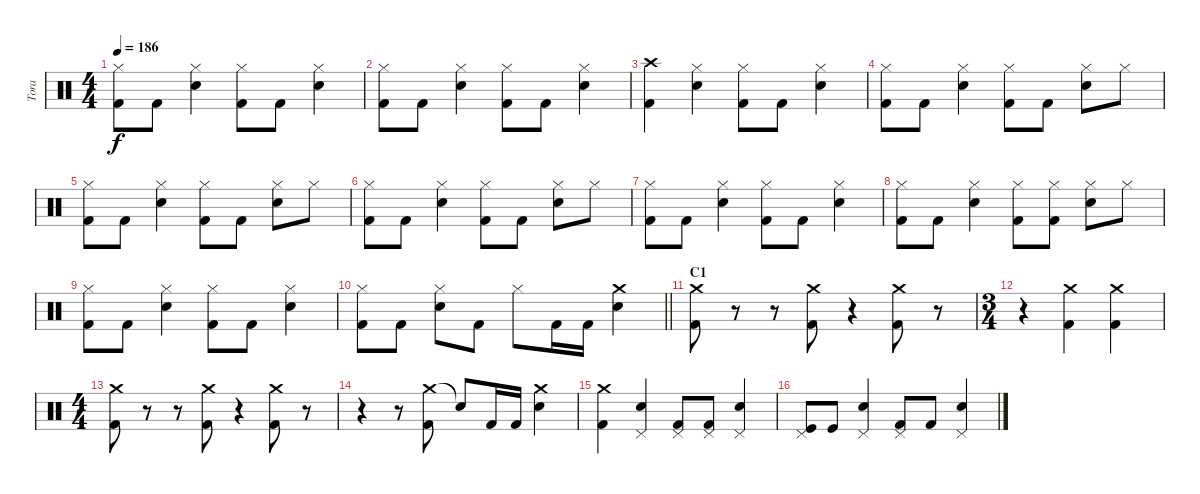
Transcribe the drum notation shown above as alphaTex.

\track ("Tora" "Tora") {instrument percussion}
\staff {score}
\articulation defaults
\ts (4 4)
\tempo 186
\clef neutral
\ks c
("Hi-Hat (closed)" "Kick (hit) 2").8{dy f} "Kick (hit) 2".8 ("Hi-Hat (closed)" "Electric Snare (hit)").4 ("Hi-Hat (closed)" "Kick (hit) 2").8 "Kick (hit) 2".8 ("Hi-Hat (closed)" "Electric Snare (hit)").4 |
("Hi-Hat (closed)" "Kick (hit) 2").8 "Kick (hit) 2".8 ("Hi-Hat (closed)" "Electric Snare (hit)").4 ("Hi-Hat (closed)" "Kick (hit) 2").8 "Kick (hit) 2".8 ("Hi-Hat (closed)" "Electric Snare (hit)").4 |
("Crash high (hit)" "Kick (hit) 2").4 ("Hi-Hat (closed)" "Electric Snare (hit)").4 ("Hi-Hat (closed)" "Kick (hit) 2").8 "Kick (hit) 2".8 ("Hi-Hat (closed)" "Electric Snare (hit)").4 |
("Hi-Hat (closed)" "Kick (hit) 2").8 "Kick (hit) 2".8 ("Hi-Hat (closed)" "Electric Snare (hit)").4 ("Hi-Hat (closed)" "Kick (hit) 2").8 "Kick (hit) 2".8 ("Hi-Hat (closed)" "Electric Snare (hit)").8 "Hi-Hat (closed)".8 |
("Hi-Hat (closed)" "Kick (hit) 2").8 "Kick (hit) 2".8 ("Hi-Hat (closed)" "Electric Snare (hit)").4 ("Hi-Hat (closed)" "Kick (hit) 2").8 "Kick (hit) 2".8 ("Hi-Hat (closed)" "Electric Snare (hit)").8 "Hi-Hat (closed)".8 |
("Hi-Hat (closed)" "Kick (hit) 2").8 "Kick (hit) 2".8 ("Hi-Hat (closed)" "Electric Snare (hit)").4 ("Hi-Hat (closed)" "Kick (hit) 2").8 "Kick (hit) 2".8 ("Hi-Hat (closed)" "Electric Snare (hit)").8 "Hi-Hat (closed)".8 |
("Hi-Hat (closed)" "Kick (hit) 2").8 "Kick (hit) 2".8 ("Hi-Hat (closed)" "Electric Snare (hit)").4 ("Hi-Hat (closed)" "Kick (hit) 2").8 "Kick (hit) 2".8 ("Hi-Hat (closed)" "Electric Snare (hit)").4 |
("Hi-Hat (closed)" "Kick (hit) 2").8 "Kick (hit) 2".8 ("Hi-Hat (closed)" "Electric Snare (hit)").4 ("Hi-Hat (closed)" "Kick (hit) 2").8 ("Hi-Hat (closed)" "Kick (hit) 2").8 ("Hi-Hat (closed)" "Electric Snare (hit)").8 "Hi-Hat (closed)".8 |
("Hi-Hat (closed)" "Kick (hit) 2").8 "Kick (hit) 2".8 ("Hi-Hat (closed)" "Electric Snare (hit)").4 ("Hi-Hat (closed)" "Kick (hit) 2").8 "Kick (hit) 2".8 ("Hi-Hat (closed)" "Electric Snare (hit)").4 |
\barLineRight lightlight
("Hi-Hat (closed)" "Kick (hit) 2").8 "Kick (hit) 2".8 ("Hi-Hat (closed)" "Electric Snare (hit)").8 "Kick (hit) 2".8 "Hi-Hat (closed)".8 "Kick (hit) 2".16 "Kick (hit) 2".16 ("Crash medium (hit)" "Electric Snare (hit)").4 |
\section ("" "C1")
("Crash medium (hit)" "Kick (hit) 2").8 r.8 r.8 ("Crash medium (hit)" "Kick (hit) 2").8 r.4 ("Crash medium (hit)" "Kick (hit) 2").8 r.8 |
\ts (3 4)
r.4 ("Crash medium (hit)" "Kick (hit) 2").4 ("Crash medium (hit)" "Kick (hit) 2").4 |
\ts (4 4)
("Crash medium (hit)" "Kick (hit) 2").8 r.8 r.8 ("Crash medium (hit)" "Kick (hit) 2").8 r.4 ("Crash medium (hit)" "Kick (hit) 2").8 r.8 |
r.4 r.8 ("Crash medium (hit)" "Kick (hit) 2").8 "Snare (hit)"{t}.8 "Kick (hit) 2".16 "Kick (hit) 2".16 ("Crash medium (hit)" "Electric Snare (hit)").4 |
("Crash medium (hit)" "Kick (hit) 2").4 ("Pedal Hi-Hat (hit)" "Electric Snare (hit)").4 ("Pedal Hi-Hat (hit)" "Kick (hit) 2").8 ("Pedal Hi-Hat (hit)" "Kick (hit) 2").8 ("Pedal Hi-Hat (hit)" "Electric Snare (hit)").4 |
("Pedal Hi-Hat (hit)" "Kick (hit)").8 "Kick (hit)".8 ("Pedal Hi-Hat (hit)" "Electric Snare (hit)").4 ("Pedal Hi-Hat (hit)" "Kick (hit) 2").8 "Kick (hit) 2".8 ("Pedal Hi-Hat (hit)" "Electric Snare (hit)").4
